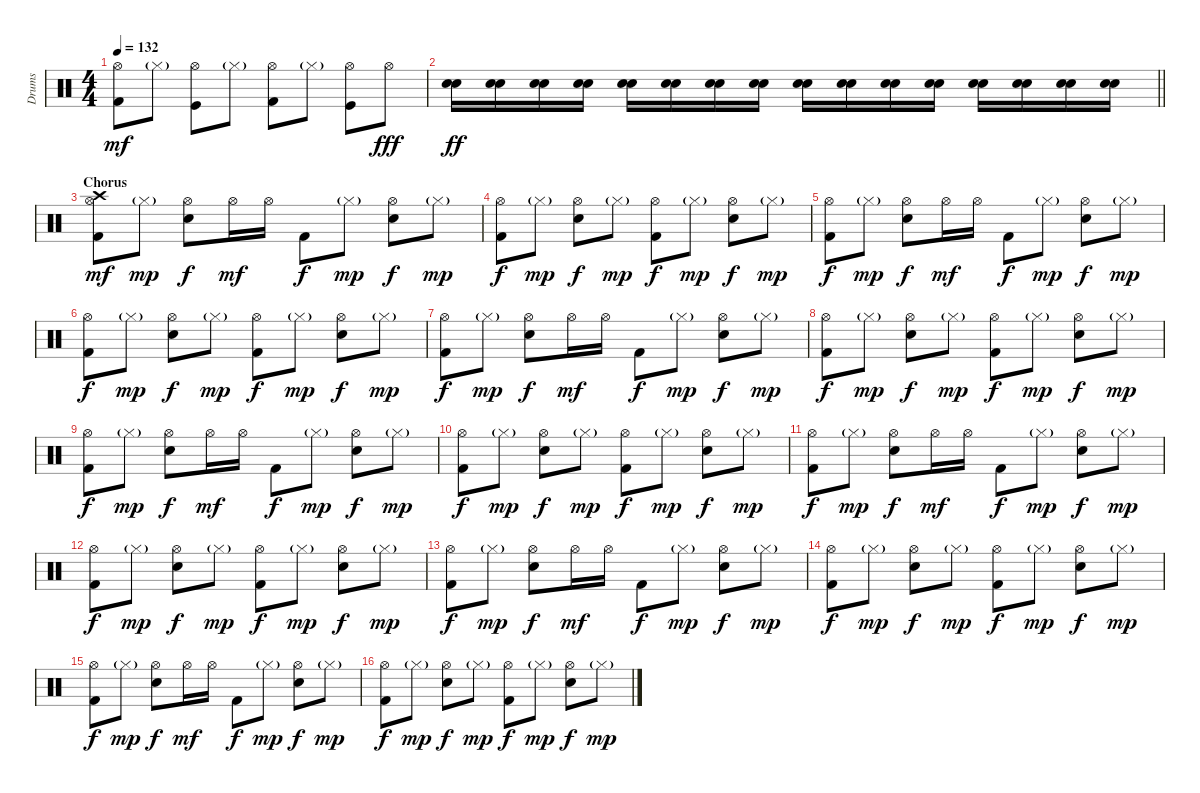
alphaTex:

\track ("Drums" "Drums") {instrument percussion}
\staff {score}
\articulation defaults
\ts (4 4)
\tempo 132
\clef neutral
\ks c
("Hi-Hat (open)" "Kick (hit) 2").8{dy mf} "Hi-Hat (closed)"{g}.8 ("Hi-Hat (open)" "Kick (hit)").8 "Hi-Hat (closed)"{g}.8 ("Hi-Hat (open)" "Kick (hit) 2").8 "Hi-Hat (closed)"{g}.8 ("Hi-Hat (open)" "Kick (hit)").8 "Hi-Hat (open)".8{dy fff} |
\barLineRight lightlight
("Electric Snare (hit)" "Snare (hit) 2").16{dy ff} ("Electric Snare (hit)" "Snare (hit) 2").16 ("Electric Snare (hit)" "Snare (hit) 2").16 ("Electric Snare (hit)" "Snare (hit) 2").16 ("Electric Snare (hit)" "Snare (hit) 2").16 ("Electric Snare (hit)" "Snare (hit) 2").16 ("Electric Snare (hit)" "Snare (hit) 2").16 ("Electric Snare (hit)" "Snare (hit) 2").16 ("Electric Snare (hit)" "Snare (hit) 2").16 ("Electric Snare (hit)" "Snare (hit) 2").16 ("Electric Snare (hit)" "Snare (hit) 2").16 ("Electric Snare (hit)" "Snare (hit) 2").16 ("Electric Snare (hit)" "Snare (hit) 2").16 ("Electric Snare (hit)" "Snare (hit) 2").16 ("Electric Snare (hit)" "Snare (hit) 2").16 ("Electric Snare (hit)" "Snare (hit) 2").16 |
\section ("" "Chorus ")
("Hi-Hat (open)" "Crash high (hit)" "Kick (hit) 2").8{dy mf} "Hi-Hat (closed)"{g}.8{dy mp} ("Hi-Hat (open)" "Snare (hit) 2").8{dy f} "Hi-Hat (open)".16{dy mf} "Hi-Hat (open)".16 "Kick (hit) 2".8{dy f} "Hi-Hat (closed)"{g}.8{dy mp} ("Hi-Hat (open)" "Snare (hit) 2").8{dy f} "Hi-Hat (closed)"{g}.8{dy mp} |
("Hi-Hat (open)" "Kick (hit) 2").8{dy f} "Hi-Hat (closed)"{g}.8{dy mp} ("Hi-Hat (open)" "Snare (hit) 2").8{dy f} "Hi-Hat (closed)"{g}.8{dy mp} ("Hi-Hat (open)" "Kick (hit) 2").8{dy f} "Hi-Hat (closed)"{g}.8{dy mp} ("Hi-Hat (open)" "Snare (hit) 2").8{dy f} "Hi-Hat (closed)"{g}.8{dy mp} |
("Hi-Hat (open)" "Kick (hit) 2").8{dy f} "Hi-Hat (closed)"{g}.8{dy mp} ("Hi-Hat (open)" "Snare (hit) 2").8{dy f} "Hi-Hat (open)".16{dy mf} "Hi-Hat (open)".16 "Kick (hit) 2".8{dy f} "Hi-Hat (closed)"{g}.8{dy mp} ("Hi-Hat (open)" "Snare (hit) 2").8{dy f} "Hi-Hat (closed)"{g}.8{dy mp} |
("Hi-Hat (open)" "Kick (hit) 2").8{dy f} "Hi-Hat (closed)"{g}.8{dy mp} ("Hi-Hat (open)" "Snare (hit) 2").8{dy f} "Hi-Hat (closed)"{g}.8{dy mp} ("Hi-Hat (open)" "Kick (hit) 2").8{dy f} "Hi-Hat (closed)"{g}.8{dy mp} ("Hi-Hat (open)" "Snare (hit) 2").8{dy f} "Hi-Hat (closed)"{g}.8{dy mp} |
("Hi-Hat (open)" "Kick (hit) 2").8{dy f} "Hi-Hat (closed)"{g}.8{dy mp} ("Hi-Hat (open)" "Snare (hit) 2").8{dy f} "Hi-Hat (open)".16{dy mf} "Hi-Hat (open)".16 "Kick (hit) 2".8{dy f} "Hi-Hat (closed)"{g}.8{dy mp} ("Hi-Hat (open)" "Snare (hit) 2").8{dy f} "Hi-Hat (closed)"{g}.8{dy mp} |
("Hi-Hat (open)" "Kick (hit) 2").8{dy f} "Hi-Hat (closed)"{g}.8{dy mp} ("Hi-Hat (open)" "Snare (hit) 2").8{dy f} "Hi-Hat (closed)"{g}.8{dy mp} ("Hi-Hat (open)" "Kick (hit) 2").8{dy f} "Hi-Hat (closed)"{g}.8{dy mp} ("Hi-Hat (open)" "Snare (hit) 2").8{dy f} "Hi-Hat (closed)"{g}.8{dy mp} |
("Hi-Hat (open)" "Kick (hit) 2").8{dy f} "Hi-Hat (closed)"{g}.8{dy mp} ("Hi-Hat (open)" "Snare (hit) 2").8{dy f} "Hi-Hat (open)".16{dy mf} "Hi-Hat (open)".16 "Kick (hit) 2".8{dy f} "Hi-Hat (closed)"{g}.8{dy mp} ("Hi-Hat (open)" "Snare (hit) 2").8{dy f} "Hi-Hat (closed)"{g}.8{dy mp} |
("Hi-Hat (open)" "Kick (hit) 2").8{dy f} "Hi-Hat (closed)"{g}.8{dy mp} ("Hi-Hat (open)" "Snare (hit) 2").8{dy f} "Hi-Hat (closed)"{g}.8{dy mp} ("Hi-Hat (open)" "Kick (hit) 2").8{dy f} "Hi-Hat (closed)"{g}.8{dy mp} ("Hi-Hat (open)" "Snare (hit) 2").8{dy f} "Hi-Hat (closed)"{g}.8{dy mp} |
("Hi-Hat (open)" "Kick (hit) 2").8{dy f} "Hi-Hat (closed)"{g}.8{dy mp} ("Hi-Hat (open)" "Snare (hit) 2").8{dy f} "Hi-Hat (open)".16{dy mf} "Hi-Hat (open)".16 "Kick (hit) 2".8{dy f} "Hi-Hat (closed)"{g}.8{dy mp} ("Hi-Hat (open)" "Snare (hit) 2").8{dy f} "Hi-Hat (closed)"{g}.8{dy mp} |
("Hi-Hat (open)" "Kick (hit) 2").8{dy f} "Hi-Hat (closed)"{g}.8{dy mp} ("Hi-Hat (open)" "Snare (hit) 2").8{dy f} "Hi-Hat (closed)"{g}.8{dy mp} ("Hi-Hat (open)" "Kick (hit) 2").8{dy f} "Hi-Hat (closed)"{g}.8{dy mp} ("Hi-Hat (open)" "Snare (hit) 2").8{dy f} "Hi-Hat (closed)"{g}.8{dy mp} |
("Hi-Hat (open)" "Kick (hit) 2").8{dy f} "Hi-Hat (closed)"{g}.8{dy mp} ("Hi-Hat (open)" "Snare (hit) 2").8{dy f} "Hi-Hat (open)".16{dy mf} "Hi-Hat (open)".16 "Kick (hit) 2".8{dy f} "Hi-Hat (closed)"{g}.8{dy mp} ("Hi-Hat (open)" "Snare (hit) 2").8{dy f} "Hi-Hat (closed)"{g}.8{dy mp} |
("Hi-Hat (open)" "Kick (hit) 2").8{dy f} "Hi-Hat (closed)"{g}.8{dy mp} ("Hi-Hat (open)" "Snare (hit) 2").8{dy f} "Hi-Hat (closed)"{g}.8{dy mp} ("Hi-Hat (open)" "Kick (hit) 2").8{dy f} "Hi-Hat (closed)"{g}.8{dy mp} ("Hi-Hat (open)" "Snare (hit) 2").8{dy f} "Hi-Hat (closed)"{g}.8{dy mp} |
("Hi-Hat (open)" "Kick (hit) 2").8{dy f} "Hi-Hat (closed)"{g}.8{dy mp} ("Hi-Hat (open)" "Snare (hit) 2").8{dy f} "Hi-Hat (open)".16{dy mf} "Hi-Hat (open)".16 "Kick (hit) 2".8{dy f} "Hi-Hat (closed)"{g}.8{dy mp} ("Hi-Hat (open)" "Snare (hit) 2").8{dy f} "Hi-Hat (closed)"{g}.8{dy mp} |
("Hi-Hat (open)" "Kick (hit) 2").8{dy f} "Hi-Hat (closed)"{g}.8{dy mp} ("Hi-Hat (open)" "Snare (hit) 2").8{dy f} "Hi-Hat (closed)"{g}.8{dy mp} ("Hi-Hat (open)" "Kick (hit) 2").8{dy f} "Hi-Hat (closed)"{g}.8{dy mp} ("Hi-Hat (open)" "Snare (hit) 2").8{dy f} "Hi-Hat (closed)"{g}.8{dy mp}
